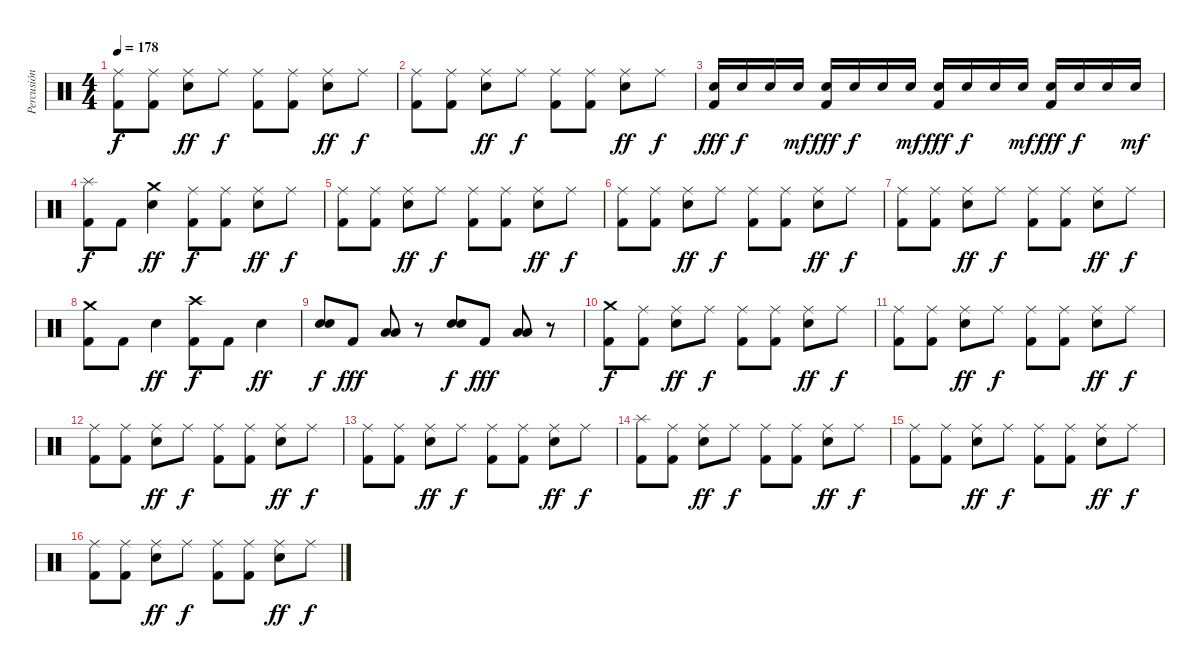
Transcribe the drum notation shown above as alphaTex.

\track ("Percusión" "Percusión") {instrument percussion}
\staff {score}
\articulation defaults
\ts (4 4)
\tempo 178
\clef neutral
\ks c
("Ride (middle)" "Kick (hit) 2").8{dy f} ("Ride (middle)" "Kick (hit) 2").8 ("Ride (middle)" "Snare (hit) 2").8{dy ff} "Ride (middle)".8{dy f} ("Ride (middle)" "Kick (hit) 2").8 ("Ride (middle)" "Kick (hit) 2").8 ("Ride (middle)" "Snare (hit) 2").8{dy ff} "Ride (middle)".8{dy f} |
("Ride (middle)" "Kick (hit) 2").8 ("Ride (middle)" "Kick (hit) 2").8 ("Ride (middle)" "Snare (hit) 2").8{dy ff} "Ride (middle)".8{dy f} ("Ride (middle)" "Kick (hit) 2").8 ("Ride (middle)" "Kick (hit) 2").8 ("Ride (middle)" "Snare (hit) 2").8{dy ff} "Ride (middle)".8{dy f} |
("Snare (hit) 2" "Kick (hit) 2").16{dy fff} "Snare (hit) 2".16{dy f} "Snare (hit) 2".16 "Snare (hit) 2".16{dy mf} ("Snare (hit) 2" "Kick (hit) 2").16{dy fff} "Snare (hit) 2".16{dy f} "Snare (hit) 2".16 "Snare (hit) 2".16{dy mf} ("Snare (hit) 2" "Kick (hit) 2").16{dy fff} "Snare (hit) 2".16{dy f} "Snare (hit) 2".16 "Snare (hit) 2".16{dy mf} ("Snare (hit) 2" "Kick (hit) 2").16{dy fff} "Snare (hit) 2".16{dy f} "Snare (hit) 2".16 "Snare (hit) 2".16{dy mf} |
("Splash (hit)" "Kick (hit) 2").8{dy f} "Kick (hit) 2".8 ("Crash medium (hit)" "Snare (hit) 2").4{dy ff} ("Ride (middle)" "Kick (hit) 2").8{dy f} ("Ride (middle)" "Kick (hit) 2").8 ("Ride (middle)" "Snare (hit) 2").8{dy ff} "Ride (middle)".8{dy f} |
("Ride (middle)" "Kick (hit) 2").8 ("Ride (middle)" "Kick (hit) 2").8 ("Ride (middle)" "Snare (hit) 2").8{dy ff} "Ride (middle)".8{dy f} ("Ride (middle)" "Kick (hit) 2").8 ("Ride (middle)" "Kick (hit) 2").8 ("Ride (middle)" "Snare (hit) 2").8{dy ff} "Ride (middle)".8{dy f} |
("Ride (middle)" "Kick (hit) 2").8 ("Ride (middle)" "Kick (hit) 2").8 ("Ride (middle)" "Snare (hit) 2").8{dy ff} "Ride (middle)".8{dy f} ("Ride (middle)" "Kick (hit) 2").8 ("Ride (middle)" "Kick (hit) 2").8 ("Ride (middle)" "Snare (hit) 2").8{dy ff} "Ride (middle)".8{dy f} |
("Ride (middle)" "Kick (hit) 2").8 ("Ride (middle)" "Kick (hit) 2").8 ("Ride (middle)" "Snare (hit) 2").8{dy ff} "Ride (middle)".8{dy f} ("Ride (middle)" "Kick (hit) 2").8 ("Ride (middle)" "Kick (hit) 2").8 ("Ride (middle)" "Snare (hit) 2").8{dy ff} "Ride (middle)".8{dy f} |
("Crash medium (hit)" "Kick (hit) 2").8 "Kick (hit) 2".8 "Snare (hit) 2".4{dy ff} ("Crash high (hit)" "Kick (hit) 2").8{dy f} "Kick (hit) 2".8 "Snare (hit) 2".4{dy ff} |
("Snare (hit) 2" "Snare (hit) 2").8{dy f} "Kick (hit) 2".8{dy fff} ("Low Tom (hit)" "Low Tom (hit)").8 r.8 ("Snare (hit) 2" "Snare (hit) 2").8{dy f} "Kick (hit) 2".8{dy fff} ("Low Tom (hit)" "Low Tom (hit)").8 r.8 |
("Crash medium (hit)" "Kick (hit) 2").8{dy f} ("Ride (middle)" "Kick (hit) 2").8 ("Ride (middle)" "Snare (hit) 2").8{dy ff} "Ride (middle)".8{dy f} ("Ride (middle)" "Kick (hit) 2").8 ("Ride (middle)" "Kick (hit) 2").8 ("Ride (middle)" "Snare (hit) 2").8{dy ff} "Ride (middle)".8{dy f} |
("Ride (middle)" "Kick (hit) 2").8 ("Ride (middle)" "Kick (hit) 2").8 ("Ride (middle)" "Snare (hit) 2").8{dy ff} "Ride (middle)".8{dy f} ("Ride (middle)" "Kick (hit) 2").8 ("Ride (middle)" "Kick (hit) 2").8 ("Ride (middle)" "Snare (hit) 2").8{dy ff} "Ride (middle)".8{dy f} |
("Ride (middle)" "Kick (hit) 2").8 ("Ride (middle)" "Kick (hit) 2").8 ("Ride (middle)" "Snare (hit) 2").8{dy ff} "Ride (middle)".8{dy f} ("Ride (middle)" "Kick (hit) 2").8 ("Ride (middle)" "Kick (hit) 2").8 ("Ride (middle)" "Snare (hit) 2").8{dy ff} "Ride (middle)".8{dy f} |
("Ride (middle)" "Kick (hit) 2").8 ("Ride (middle)" "Kick (hit) 2").8 ("Ride (middle)" "Snare (hit) 2").8{dy ff} "Ride (middle)".8{dy f} ("Ride (middle)" "Kick (hit) 2").8 ("Ride (middle)" "Kick (hit) 2").8 ("Ride (middle)" "Snare (hit) 2").8{dy ff} "Ride (middle)".8{dy f} |
("Splash (hit)" "Kick (hit) 2").8 ("Ride (middle)" "Kick (hit) 2").8 ("Ride (middle)" "Snare (hit) 2").8{dy ff} "Ride (middle)".8{dy f} ("Ride (middle)" "Kick (hit) 2").8 ("Ride (middle)" "Kick (hit) 2").8 ("Ride (middle)" "Snare (hit) 2").8{dy ff} "Ride (middle)".8{dy f} |
("Ride (middle)" "Kick (hit) 2").8 ("Ride (middle)" "Kick (hit) 2").8 ("Ride (middle)" "Snare (hit) 2").8{dy ff} "Ride (middle)".8{dy f} ("Ride (middle)" "Kick (hit) 2").8 ("Ride (middle)" "Kick (hit) 2").8 ("Ride (middle)" "Snare (hit) 2").8{dy ff} "Ride (middle)".8{dy f} |
("Ride (middle)" "Kick (hit) 2").8 ("Ride (middle)" "Kick (hit) 2").8 ("Ride (middle)" "Snare (hit) 2").8{dy ff} "Ride (middle)".8{dy f} ("Ride (middle)" "Kick (hit) 2").8 ("Ride (middle)" "Kick (hit) 2").8 ("Ride (middle)" "Snare (hit) 2").8{dy ff} "Ride (middle)".8{dy f}
